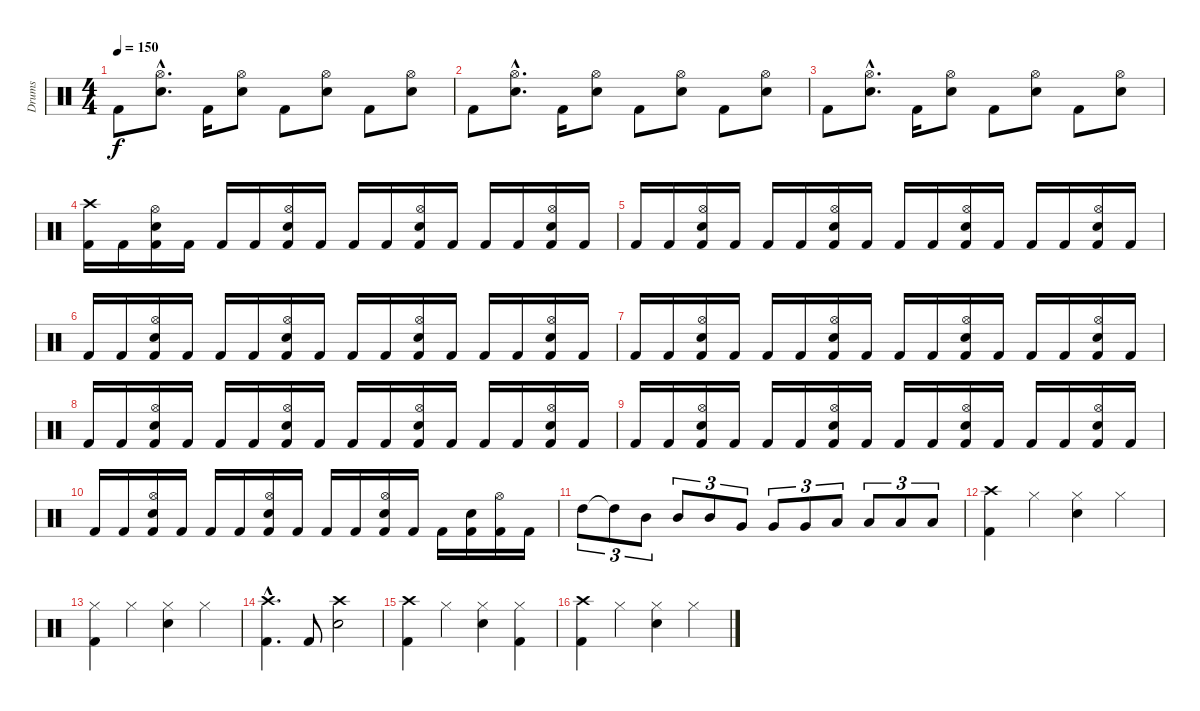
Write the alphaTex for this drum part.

\track ("Drums" "Drums") {instrument percussion}
\staff {score}
\articulation defaults
\ts (4 4)
\tempo 150
\clef neutral
\ks c "Kick (hit) 2".8{dy f}
("Hi-Hat (open)"{hac} "Snare (hit) 2"{hac}).8{d} "Kick (hit) 2".16 ("Hi-Hat (open)" "Snare (hit) 2").8 "Kick (hit) 2".8 ("Hi-Hat (open)" "Snare (hit) 2").8 "Kick (hit) 2".8 ("Hi-Hat (open)" "Snare (hit) 2").8 |
"Kick (hit) 2".8 ("Hi-Hat (open)"{hac} "Snare (hit) 2"{hac}).8{d} "Kick (hit) 2".16 ("Hi-Hat (open)" "Snare (hit) 2").8 "Kick (hit) 2".8 ("Hi-Hat (open)" "Snare (hit) 2").8 "Kick (hit) 2".8 ("Hi-Hat (open)" "Snare (hit) 2").8 |
"Kick (hit) 2".8 ("Hi-Hat (open)"{hac} "Snare (hit) 2"{hac}).8{d} "Kick (hit) 2".16 ("Hi-Hat (open)" "Snare (hit) 2").8 "Kick (hit) 2".8 ("Hi-Hat (open)" "Snare (hit) 2").8 "Kick (hit) 2".8 ("Hi-Hat (open)" "Snare (hit) 2").8 |
("Crash high (hit)" "Kick (hit) 2").16 "Kick (hit) 2".16 ("Hi-Hat (open)" "Snare (hit) 2" "Kick (hit) 2").16 "Kick (hit) 2".16 "Kick (hit) 2".16 "Kick (hit) 2".16 ("Hi-Hat (open)" "Snare (hit) 2" "Kick (hit) 2").16 "Kick (hit) 2".16 "Kick (hit) 2".16 "Kick (hit) 2".16 ("Hi-Hat (open)" "Snare (hit) 2" "Kick (hit) 2").16 "Kick (hit) 2".16 "Kick (hit) 2".16 "Kick (hit) 2".16 ("Hi-Hat (open)" "Snare (hit) 2" "Kick (hit) 2").16 "Kick (hit) 2".16 |
"Kick (hit) 2".16 "Kick (hit) 2".16 ("Hi-Hat (open)" "Snare (hit) 2" "Kick (hit) 2").16 "Kick (hit) 2".16 "Kick (hit) 2".16 "Kick (hit) 2".16 ("Hi-Hat (open)" "Snare (hit) 2" "Kick (hit) 2").16 "Kick (hit) 2".16 "Kick (hit) 2".16 "Kick (hit) 2".16 ("Hi-Hat (open)" "Snare (hit) 2" "Kick (hit) 2").16 "Kick (hit) 2".16 "Kick (hit) 2".16 "Kick (hit) 2".16 ("Hi-Hat (open)" "Snare (hit) 2" "Kick (hit) 2").16 "Kick (hit) 2".16 |
"Kick (hit) 2".16 "Kick (hit) 2".16 ("Hi-Hat (open)" "Snare (hit) 2" "Kick (hit) 2").16 "Kick (hit) 2".16 "Kick (hit) 2".16 "Kick (hit) 2".16 ("Hi-Hat (open)" "Snare (hit) 2" "Kick (hit) 2").16 "Kick (hit) 2".16 "Kick (hit) 2".16 "Kick (hit) 2".16 ("Hi-Hat (open)" "Snare (hit) 2" "Kick (hit) 2").16 "Kick (hit) 2".16 "Kick (hit) 2".16 "Kick (hit) 2".16 ("Hi-Hat (open)" "Snare (hit) 2" "Kick (hit) 2").16 "Kick (hit) 2".16 |
"Kick (hit) 2".16 "Kick (hit) 2".16 ("Hi-Hat (open)" "Snare (hit) 2" "Kick (hit) 2").16 "Kick (hit) 2".16 "Kick (hit) 2".16 "Kick (hit) 2".16 ("Hi-Hat (open)" "Snare (hit) 2" "Kick (hit) 2").16 "Kick (hit) 2".16 "Kick (hit) 2".16 "Kick (hit) 2".16 ("Hi-Hat (open)" "Snare (hit) 2" "Kick (hit) 2").16 "Kick (hit) 2".16 "Kick (hit) 2".16 "Kick (hit) 2".16 ("Hi-Hat (open)" "Snare (hit) 2" "Kick (hit) 2").16 "Kick (hit) 2".16 |
"Kick (hit) 2".16 "Kick (hit) 2".16 ("Hi-Hat (open)" "Snare (hit) 2" "Kick (hit) 2").16 "Kick (hit) 2".16 "Kick (hit) 2".16 "Kick (hit) 2".16 ("Hi-Hat (open)" "Snare (hit) 2" "Kick (hit) 2").16 "Kick (hit) 2".16 "Kick (hit) 2".16 "Kick (hit) 2".16 ("Hi-Hat (open)" "Snare (hit) 2" "Kick (hit) 2").16 "Kick (hit) 2".16 "Kick (hit) 2".16 "Kick (hit) 2".16 ("Hi-Hat (open)" "Snare (hit) 2" "Kick (hit) 2").16 "Kick (hit) 2".16 |
"Kick (hit) 2".16 "Kick (hit) 2".16 ("Hi-Hat (open)" "Snare (hit) 2" "Kick (hit) 2").16 "Kick (hit) 2".16 "Kick (hit) 2".16 "Kick (hit) 2".16 ("Hi-Hat (open)" "Snare (hit) 2" "Kick (hit) 2").16 "Kick (hit) 2".16 "Kick (hit) 2".16 "Kick (hit) 2".16 ("Hi-Hat (open)" "Snare (hit) 2" "Kick (hit) 2").16 "Kick (hit) 2".16 "Kick (hit) 2".16 "Kick (hit) 2".16 ("Hi-Hat (open)" "Snare (hit) 2" "Kick (hit) 2").16 "Kick (hit) 2".16 |
"Kick (hit) 2".16 "Kick (hit) 2".16 ("Hi-Hat (open)" "Snare (hit) 2" "Kick (hit) 2").16 "Kick (hit) 2".16 "Kick (hit) 2".16 "Kick (hit) 2".16 ("Hi-Hat (open)" "Snare (hit) 2" "Kick (hit) 2").16 "Kick (hit) 2".16 "Kick (hit) 2".16 "Kick (hit) 2".16 ("Hi-Hat (open)" "Snare (hit) 2" "Kick (hit) 2").16 "Kick (hit) 2".16 "Kick (hit) 2".16 ("Snare (hit) 2" "Kick (hit) 2").16 ("Hi-Hat (open)" "Kick (hit) 2").16 "Kick (hit) 2".16 |
"High Tom (hit)".8{tu (3 2)} "High Tom (hit)"{t}.8{tu (3 2)} "Mid Tom (hit)".8{tu (3 2)} "Mid Tom (hit)".8{tu (3 2)} "Mid Tom (hit)".8{tu (3 2)} "Very Low Tom (hit)".8{tu (3 2)} "Very Low Tom (hit)".8{tu (3 2)} "Very Low Tom (hit)".8{tu (3 2)} "Low Floor Tom (hit)".8{tu (3 2)} "Low Floor Tom (hit)".8{tu (3 2)} "Low Floor Tom (hit)".8{tu (3 2)} "Low Floor Tom (hit)".8{tu (3 2)} |
("Crash high (hit)" "Kick (hit) 2").4 "Hi-Hat (closed)".4 ("Hi-Hat (closed)" "Snare (hit) 2").4 "Hi-Hat (closed)".4 |
("Hi-Hat (closed)" "Kick (hit) 2").4 "Hi-Hat (closed)".4 ("Hi-Hat (closed)" "Snare (hit) 2").4 "Hi-Hat (closed)".4 |
("Crash high (hit)"{hac} "Kick (hit) 2"{hac}).4{d} "Kick (hit) 2".8 ("Crash high (hit)" "Snare (hit) 2").2 |
("Crash high (hit)" "Kick (hit) 2").4 "Hi-Hat (closed)".4 ("Hi-Hat (closed)" "Snare (hit) 2").4 ("Hi-Hat (closed)" "Kick (hit) 2").4 |
("Crash high (hit)" "Kick (hit) 2").4 "Hi-Hat (closed)".4 ("Hi-Hat (closed)" "Snare (hit) 2").4 "Hi-Hat (closed)".4
